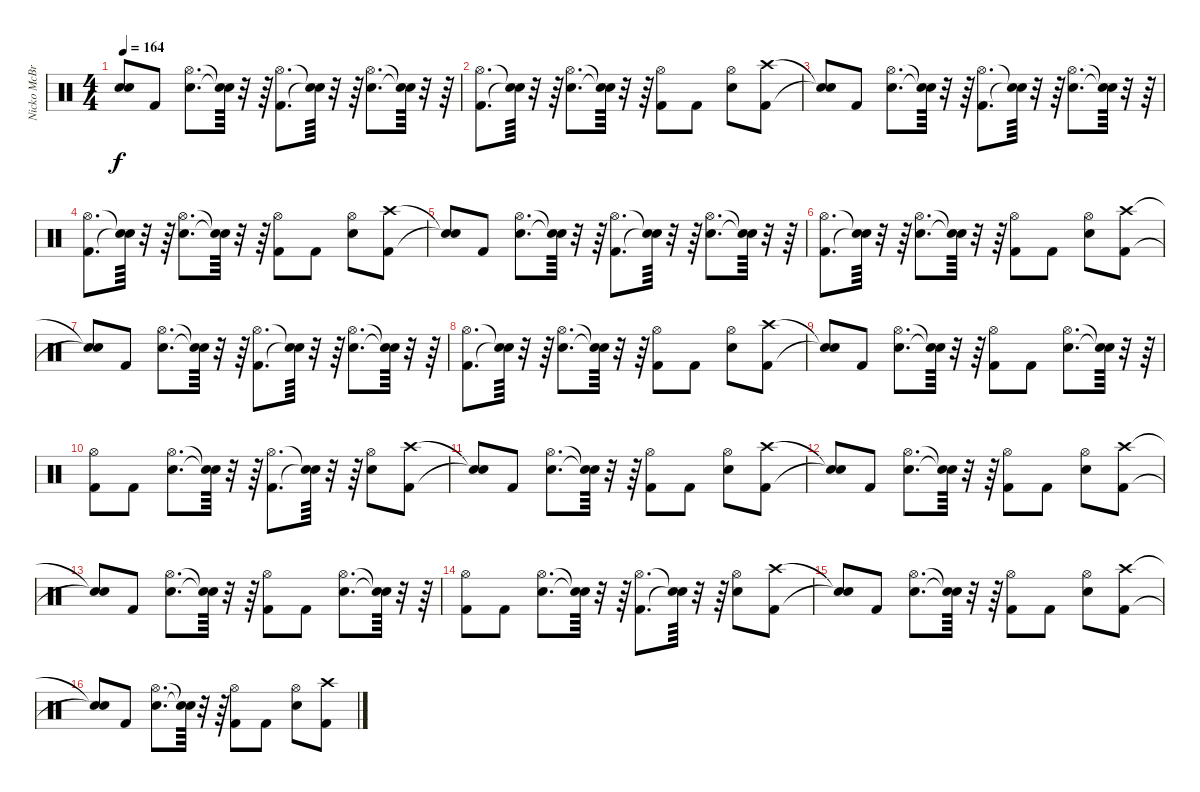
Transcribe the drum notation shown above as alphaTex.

\track ("Nicko McBrian (Drums)" "Nicko McBr") {instrument percussion}
\staff {score}
\articulation defaults
\ts (4 4)
\tempo 164
\clef neutral
\ks c
("Snare (hit)"{t} "Snare (hit)"{t}).8{dy f} "Kick (hit) 2".8 ("Snare (hit) 2" "Hi-Hat (open)").8{d} ("Snare (hit)"{t} "Snare (hit)"{t}).64 r.32 r.64 ("Kick (hit) 2" "Hi-Hat (open)").8{d} ("Snare (hit)"{t} "Snare (hit)"{t}).64 r.32 r.64 ("Snare (hit) 2" "Hi-Hat (open)").8{d} ("Snare (hit)"{t} "Snare (hit)"{t}).64 r.32 r.64 |
("Kick (hit) 2" "Hi-Hat (open)").8{d} ("Snare (hit)"{t} "Snare (hit)"{t}).64 r.32 r.64 ("Snare (hit) 2" "Hi-Hat (open)").8{d} ("Snare (hit)"{t} "Snare (hit)"{t}).64 r.32 r.64 ("Kick (hit) 2" "Hi-Hat (open)").8 "Kick (hit) 2".8 ("Snare (hit) 2" "Hi-Hat (open)").8 ("Kick (hit) 2" "Crash high (hit)").8 |
("Snare (hit)"{t} "Snare (hit)"{t}).8 "Kick (hit) 2".8 ("Snare (hit) 2" "Hi-Hat (open)").8{d} ("Snare (hit)"{t} "Snare (hit)"{t}).64 r.32 r.64 ("Kick (hit) 2" "Hi-Hat (open)").8{d} ("Snare (hit)"{t} "Snare (hit)"{t}).64 r.32 r.64 ("Snare (hit) 2" "Hi-Hat (open)").8{d} ("Snare (hit)"{t} "Snare (hit)"{t}).64 r.32 r.64 |
("Kick (hit) 2" "Hi-Hat (open)").8{d} ("Snare (hit)"{t} "Snare (hit)"{t}).64 r.32 r.64 ("Snare (hit) 2" "Hi-Hat (open)").8{d} ("Snare (hit)"{t} "Snare (hit)"{t}).64 r.32 r.64 ("Kick (hit) 2" "Hi-Hat (open)").8 "Kick (hit) 2".8 ("Snare (hit) 2" "Hi-Hat (open)").8 ("Kick (hit) 2" "Crash high (hit)").8 |
("Snare (hit)"{t} "Snare (hit)"{t}).8 "Kick (hit) 2".8 ("Snare (hit) 2" "Hi-Hat (open)").8{d} ("Snare (hit)"{t} "Snare (hit)"{t}).64 r.32 r.64 ("Kick (hit) 2" "Hi-Hat (open)").8{d} ("Snare (hit)"{t} "Snare (hit)"{t}).64 r.32 r.64 ("Snare (hit) 2" "Hi-Hat (open)").8{d} ("Snare (hit)"{t} "Snare (hit)"{t}).64 r.32 r.64 |
("Kick (hit) 2" "Hi-Hat (open)").8{d} ("Snare (hit)"{t} "Snare (hit)"{t}).64 r.32 r.64 ("Snare (hit) 2" "Hi-Hat (open)").8{d} ("Snare (hit)"{t} "Snare (hit)"{t}).64 r.32 r.64 ("Kick (hit) 2" "Hi-Hat (open)").8 "Kick (hit) 2".8 ("Snare (hit) 2" "Hi-Hat (open)").8 ("Kick (hit) 2" "Crash high (hit)").8 |
("Snare (hit)"{t} "Snare (hit)"{t}).8 "Kick (hit) 2".8 ("Snare (hit) 2" "Hi-Hat (open)").8{d} ("Snare (hit)"{t} "Snare (hit)"{t}).64 r.32 r.64 ("Kick (hit) 2" "Hi-Hat (open)").8{d} ("Snare (hit)"{t} "Snare (hit)"{t}).64 r.32 r.64 ("Snare (hit) 2" "Hi-Hat (open)").8{d} ("Snare (hit)"{t} "Snare (hit)"{t}).64 r.32 r.64 |
("Kick (hit) 2" "Hi-Hat (open)").8{d} ("Snare (hit)"{t} "Snare (hit)"{t}).64 r.32 r.64 ("Snare (hit) 2" "Hi-Hat (open)").8{d} ("Snare (hit)"{t} "Snare (hit)"{t}).64 r.32 r.64 ("Kick (hit) 2" "Hi-Hat (open)").8 "Kick (hit) 2".8 ("Snare (hit) 2" "Hi-Hat (open)").8 ("Kick (hit) 2" "Crash high (hit)").8 |
("Snare (hit)"{t} "Snare (hit)"{t}).8 "Kick (hit) 2".8 ("Snare (hit) 2" "Hi-Hat (open)").8{d} ("Snare (hit)"{t} "Snare (hit)"{t}).64 r.32 r.64 ("Kick (hit) 2" "Hi-Hat (open)").8 "Kick (hit) 2".8 ("Snare (hit) 2" "Hi-Hat (open)").8{d} ("Snare (hit)"{t} "Snare (hit)"{t}).64 r.32 r.64 |
("Kick (hit) 2" "Hi-Hat (open)").8 "Kick (hit) 2".8 ("Snare (hit) 2" "Hi-Hat (open)").8{d} ("Snare (hit)"{t} "Snare (hit)"{t}).64 r.32 r.64 ("Kick (hit) 2" "Hi-Hat (open)").8{d} ("Snare (hit)"{t} "Snare (hit)"{t}).64 r.32 r.64 ("Snare (hit) 2" "Hi-Hat (open)").8 ("Kick (hit) 2" "Crash high (hit)").8 |
("Snare (hit)"{t} "Snare (hit)"{t}).8 "Kick (hit) 2".8 ("Snare (hit) 2" "Hi-Hat (open)").8{d} ("Snare (hit)"{t} "Snare (hit)"{t}).64 r.32 r.64 ("Kick (hit) 2" "Hi-Hat (open)").8 "Kick (hit) 2".8 ("Snare (hit) 2" "Hi-Hat (open)").8 ("Kick (hit) 2" "Crash high (hit)").8 |
("Snare (hit)"{t} "Snare (hit)"{t}).8 "Kick (hit) 2".8 ("Snare (hit) 2" "Hi-Hat (open)").8{d} ("Snare (hit)"{t} "Snare (hit)"{t}).64 r.32 r.64 ("Kick (hit) 2" "Hi-Hat (open)").8 "Kick (hit) 2".8 ("Snare (hit) 2" "Hi-Hat (open)").8 ("Kick (hit) 2" "Crash high (hit)").8 |
("Snare (hit)"{t} "Snare (hit)"{t}).8 "Kick (hit) 2".8 ("Snare (hit) 2" "Hi-Hat (open)").8{d} ("Snare (hit)"{t} "Snare (hit)"{t}).64 r.32 r.64 ("Kick (hit) 2" "Hi-Hat (open)").8 "Kick (hit) 2".8 ("Snare (hit) 2" "Hi-Hat (open)").8{d} ("Snare (hit)"{t} "Snare (hit)"{t}).64 r.32 r.64 |
("Kick (hit) 2" "Hi-Hat (open)").8 "Kick (hit) 2".8 ("Snare (hit) 2" "Hi-Hat (open)").8{d} ("Snare (hit)"{t} "Snare (hit)"{t}).64 r.32 r.64 ("Kick (hit) 2" "Hi-Hat (open)").8{d} ("Snare (hit)"{t} "Snare (hit)"{t}).64 r.32 r.64 ("Snare (hit) 2" "Hi-Hat (open)").8 ("Kick (hit) 2" "Crash high (hit)").8 |
("Snare (hit)"{t} "Snare (hit)"{t}).8 "Kick (hit) 2".8 ("Snare (hit) 2" "Hi-Hat (open)").8{d} ("Snare (hit)"{t} "Snare (hit)"{t}).64 r.32 r.64 ("Kick (hit) 2" "Hi-Hat (open)").8 "Kick (hit) 2".8 ("Snare (hit) 2" "Hi-Hat (open)").8 ("Kick (hit) 2" "Crash high (hit)").8 |
("Snare (hit)"{t} "Snare (hit)"{t}).8 "Kick (hit) 2".8 ("Snare (hit) 2" "Hi-Hat (open)").8{d} ("Snare (hit)"{t} "Snare (hit)"{t}).64 r.32 r.64 ("Kick (hit) 2" "Hi-Hat (open)").8 "Kick (hit) 2".8 ("Snare (hit) 2" "Hi-Hat (open)").8 ("Kick (hit) 2" "Crash high (hit)").8
